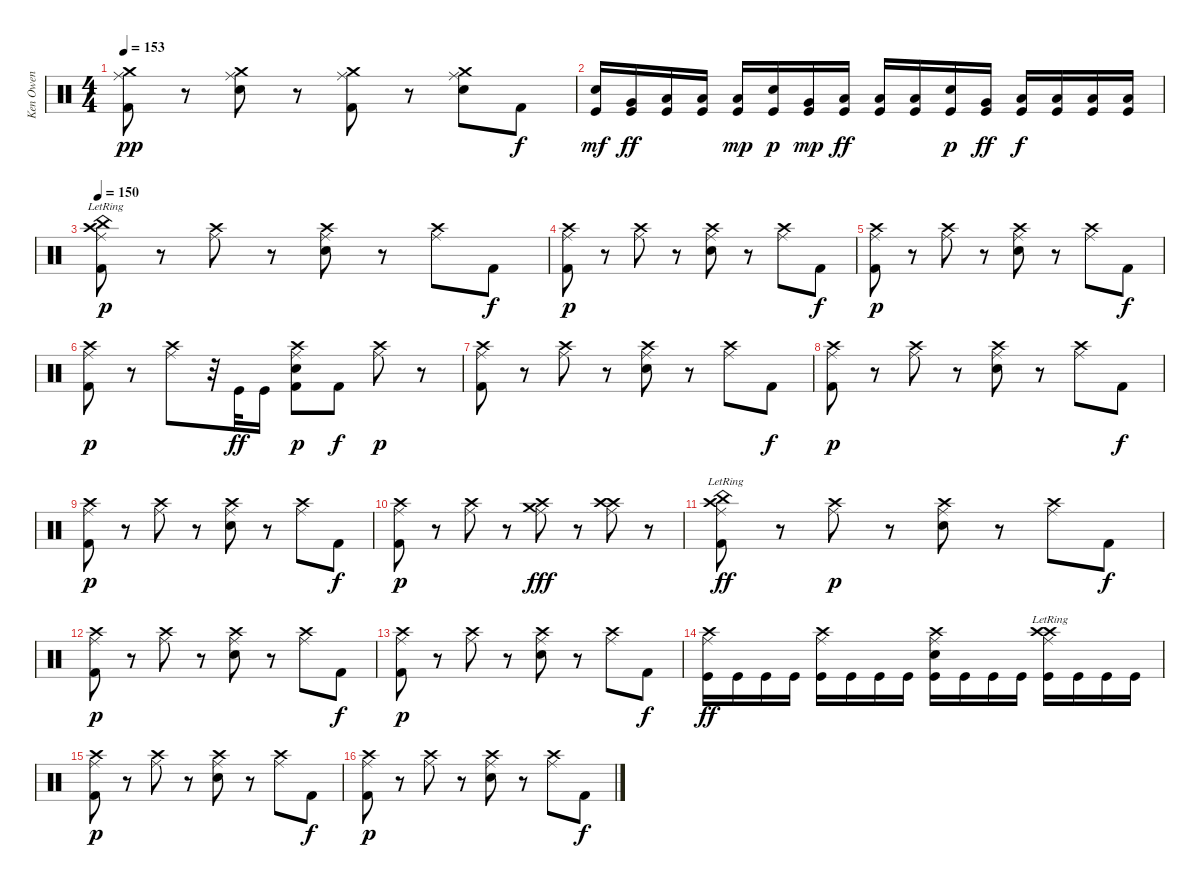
\track ("Ken Owen" "Ken Owen") {instrument percussion}
\staff {score}
\articulation defaults
\ts (4 4)
\tempo 153
\clef neutral
\ks c
("Crash medium (hit)" "Ride (middle)" "Kick (hit) 2").8{dy pp} r.8 ("Crash medium (hit)" "Ride (middle)" "Electric Snare (hit)").8 r.8 ("Crash medium (hit)" "Ride (middle)" "Kick (hit) 2").8 r.8 ("Crash medium (hit)" "Ride (middle)" "Electric Snare (hit)").8 "Kick (hit) 2".8{dy f} |
("Kick (hit)" "Electric Snare (hit)").16{dy mf} ("Kick (hit)" "Very Low Tom (hit)").16{dy ff} ("Kick (hit)" "Low Tom (hit)").16 ("Kick (hit)" "Low Tom (hit)").16 ("Kick (hit)" "Low Tom (hit)").16{dy mp} ("Kick (hit)" "Electric Snare (hit)").16{dy p} ("Kick (hit)" "Very Low Tom (hit)").16{dy mp} ("Kick (hit)" "Low Tom (hit)").16{dy ff} ("Kick (hit)" "Low Tom (hit)").16 ("Kick (hit)" "Low Tom (hit)").16 ("Kick (hit)" "Electric Snare (hit)").16{dy p} ("Kick (hit)" "Very Low Tom (hit)").16{dy ff} ("Kick (hit)" "Low Tom (hit)").16{dy f} ("Kick (hit)" "Low Tom (hit)").16 ("Kick (hit)" "Low Tom (hit)").16 ("Kick (hit)" "Low Tom (hit)").16 |
\tempo 150
("Crash high (hit)" "Ride (middle)" "Kick (hit) 2" "China (hit)"{lr}).8{dy p} r.8 ("Crash high (hit)" "Ride (middle)").8 r.8 ("Crash high (hit)" "Ride (middle)" "Electric Snare (hit)").8 r.8 ("Crash high (hit)" "Ride (middle)").8 "Kick (hit) 2".8{dy f} |
("Crash high (hit)" "Ride (middle)" "Kick (hit) 2").8{dy p} r.8 ("Crash high (hit)" "Ride (middle)").8 r.8 ("Crash high (hit)" "Ride (middle)" "Electric Snare (hit)").8 r.8 ("Crash high (hit)" "Ride (middle)").8 "Kick (hit) 2".8{dy f} |
("Crash high (hit)" "Ride (middle)" "Kick (hit) 2").8{dy p} r.8 ("Crash high (hit)" "Ride (middle)").8 r.8 ("Crash high (hit)" "Ride (middle)" "Electric Snare (hit)").8 r.8 ("Crash high (hit)" "Ride (middle)").8 "Kick (hit) 2".8{dy f} |
("Crash high (hit)" "Ride (middle)" "Kick (hit) 2").8{dy p} r.8 ("Crash high (hit)" "Ride (middle)").8 r.32 "Kick (hit)".32{dy ff} "Kick (hit)".16 ("Crash high (hit)" "Ride (middle)" "Kick (hit) 2" "Electric Snare (hit)").8{dy p} "Kick (hit) 2".8{dy f} ("Crash high (hit)" "Ride (middle)").8{dy p} r.8 |
("Crash high (hit)" "Ride (middle)" "Kick (hit) 2").8 r.8 ("Crash high (hit)" "Ride (middle)").8 r.8 ("Crash high (hit)" "Ride (middle)" "Electric Snare (hit)").8 r.8 ("Crash high (hit)" "Ride (middle)").8 "Kick (hit) 2".8{dy f} |
("Crash high (hit)" "Ride (middle)" "Kick (hit) 2").8{dy p} r.8 ("Crash high (hit)" "Ride (middle)").8 r.8 ("Crash high (hit)" "Ride (middle)" "Electric Snare (hit)").8 r.8 ("Crash high (hit)" "Ride (middle)").8 "Kick (hit) 2".8{dy f} |
("Crash high (hit)" "Ride (middle)" "Kick (hit) 2").8{dy p} r.8 ("Crash high (hit)" "Ride (middle)").8 r.8 ("Crash high (hit)" "Ride (middle)" "Electric Snare (hit)").8 r.8 ("Crash high (hit)" "Ride (middle)").8 "Kick (hit) 2".8{dy f} |
("Crash high (hit)" "Ride (middle)" "Kick (hit) 2").8{dy p} r.8 ("Crash high (hit)" "Ride (middle)").8 r.8 ("Crash high (hit)" "Ride (middle)" "Crash medium (hit)").8{dy fff} r.8 ("Crash high (hit)" "Ride (middle)" "Crash high (hit)").8 r.8 |
("Crash high (hit)" "Ride (middle)" "Kick (hit) 2" "China (hit)"{lr}).8{dy ff} r.8 ("Crash high (hit)" "Ride (middle)").8{dy p} r.8 ("Crash high (hit)" "Ride (middle)" "Electric Snare (hit)").8 r.8 ("Crash high (hit)" "Ride (middle)").8 "Kick (hit) 2".8{dy f} |
("Crash high (hit)" "Ride (middle)" "Kick (hit) 2").8{dy p} r.8 ("Crash high (hit)" "Ride (middle)").8 r.8 ("Crash high (hit)" "Ride (middle)" "Electric Snare (hit)").8 r.8 ("Crash high (hit)" "Ride (middle)").8 "Kick (hit) 2".8{dy f} |
("Crash high (hit)" "Ride (middle)" "Kick (hit) 2").8{dy p} r.8 ("Crash high (hit)" "Ride (middle)").8 r.8 ("Crash high (hit)" "Ride (middle)" "Electric Snare (hit)").8 r.8 ("Crash high (hit)" "Ride (middle)").8 "Kick (hit) 2".8{dy f} |
("Crash high (hit)" "Ride (middle)" "Kick (hit)").16{dy ff} "Kick (hit)".16 "Kick (hit)".16 "Kick (hit)".16 ("Crash high (hit)" "Ride (middle)" "Kick (hit)").16 "Kick (hit)".16 "Kick (hit)".16 "Kick (hit)".16 ("Crash high (hit)" "Ride (middle)" "Kick (hit)" "Electric Snare (hit)").16 "Kick (hit)".16 "Kick (hit)".16 "Kick (hit)".16 ("Crash high (hit)" "Ride (middle)" "Kick (hit)" "Crash high (hit)"{lr}).16 "Kick (hit)".16 "Kick (hit)".16 "Kick (hit)".16 |
("Crash high (hit)" "Ride (middle)" "Kick (hit) 2").8{dy p} r.8 ("Crash high (hit)" "Ride (middle)").8 r.8 ("Crash high (hit)" "Ride (middle)" "Electric Snare (hit)").8 r.8 ("Crash high (hit)" "Ride (middle)").8 "Kick (hit) 2".8{dy f} |
("Crash high (hit)" "Ride (middle)" "Kick (hit) 2").8{dy p} r.8 ("Crash high (hit)" "Ride (middle)").8 r.8 ("Crash high (hit)" "Ride (middle)" "Electric Snare (hit)").8 r.8 ("Crash high (hit)" "Ride (middle)").8 "Kick (hit) 2".8{dy f}
